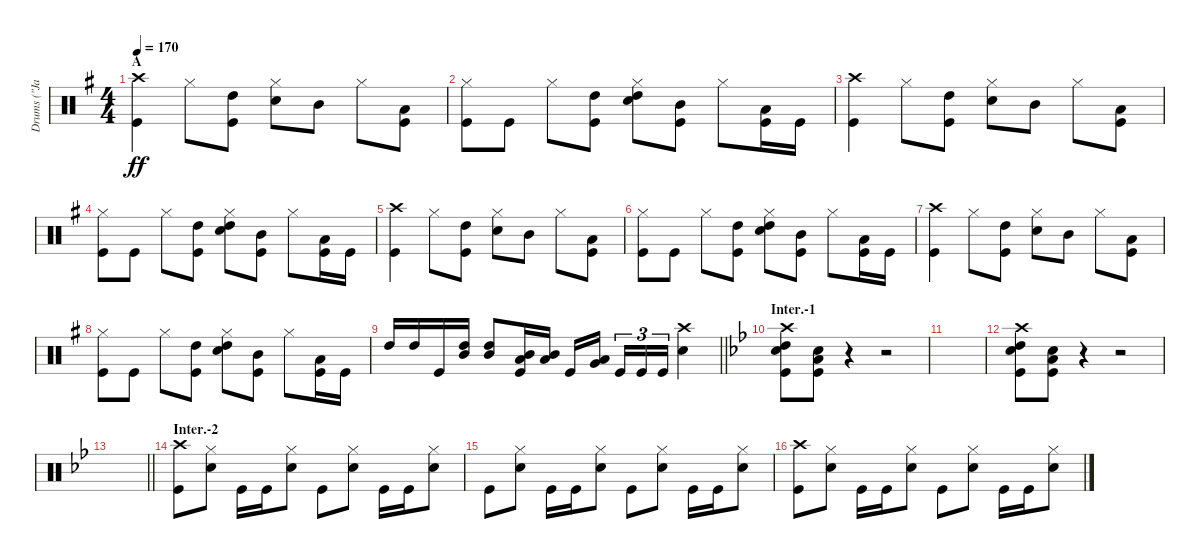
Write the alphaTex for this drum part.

\track ("Drums (\"Jane\")" "Drums (\"Ja") {instrument percussion}
\staff {score}
\articulation defaults
\ts (4 4)
\section ("" "A")
\tempo 170
\clef neutral
\ks g
("Crash high (hit)" "Kick (hit)").4{dy ff} "Hi-Hat (closed)".8 ("High Tom (hit)" "Kick (hit)").8 ("Hi-Hat (closed)" "Snare (hit) 2").8 "Mid Tom (hit)".8 "Hi-Hat (closed)".8 ("Low Tom (hit)" "Kick (hit)").8 |
("Hi-Hat (closed)" "Kick (hit)").8 "Kick (hit)".8 "Hi-Hat (closed)".8 ("High Tom (hit)" "Kick (hit)").8 ("Hi-Hat (closed)" "Snare (hit) 2" "High Tom (hit)").8 ("Mid Tom (hit)" "Kick (hit)").8 "Hi-Hat (closed)".8 ("Low Tom (hit)" "Kick (hit)").16 "Kick (hit)".16 |
("Crash high (hit)" "Kick (hit)").4 "Hi-Hat (closed)".8 ("High Tom (hit)" "Kick (hit)").8 ("Hi-Hat (closed)" "Snare (hit) 2").8 "Mid Tom (hit)".8 "Hi-Hat (closed)".8 ("Low Tom (hit)" "Kick (hit)").8 |
("Hi-Hat (closed)" "Kick (hit)").8 "Kick (hit)".8 "Hi-Hat (closed)".8 ("High Tom (hit)" "Kick (hit)").8 ("Hi-Hat (closed)" "Snare (hit) 2" "High Tom (hit)").8 ("Mid Tom (hit)" "Kick (hit)").8 "Hi-Hat (closed)".8 ("Low Tom (hit)" "Kick (hit)").16 "Kick (hit)".16 |
("Crash high (hit)" "Kick (hit)").4 "Hi-Hat (closed)".8 ("High Tom (hit)" "Kick (hit)").8 ("Hi-Hat (closed)" "Snare (hit) 2").8 "Mid Tom (hit)".8 "Hi-Hat (closed)".8 ("Low Tom (hit)" "Kick (hit)").8 |
("Hi-Hat (closed)" "Kick (hit)").8 "Kick (hit)".8 "Hi-Hat (closed)".8 ("High Tom (hit)" "Kick (hit)").8 ("Hi-Hat (closed)" "Snare (hit) 2" "High Tom (hit)").8 ("Mid Tom (hit)" "Kick (hit)").8 "Hi-Hat (closed)".8 ("Low Tom (hit)" "Kick (hit)").16 "Kick (hit)".16 |
("Crash high (hit)" "Kick (hit)").4 "Hi-Hat (closed)".8 ("High Tom (hit)" "Kick (hit)").8 ("Hi-Hat (closed)" "Snare (hit) 2").8 "Mid Tom (hit)".8 "Hi-Hat (closed)".8 ("Low Tom (hit)" "Kick (hit)").8 |
("Hi-Hat (closed)" "Kick (hit)").8 "Kick (hit)".8 "Hi-Hat (closed)".8 ("High Tom (hit)" "Kick (hit)").8 ("Hi-Hat (closed)" "Snare (hit) 2" "High Tom (hit)").8 ("Mid Tom (hit)" "Kick (hit)").8 "Hi-Hat (closed)".8 ("Low Tom (hit)" "Kick (hit)").16 "Kick (hit)".16 |
\barLineRight lightlight "High Tom (hit)".16 "High Tom (hit)".16 "Kick (hit)".16
("High Tom (hit)" "Mid Tom (hit)").16 ("High Tom (hit)" "Mid Tom (hit)").8 ("Low Tom (hit)" "Mid Tom (hit)" "Kick (hit)").16 ("Low Tom (hit)" "Mid Tom (hit)").16 "Kick (hit)".16 ("Low Tom (hit)" "Very Low Tom (hit)").16{beam splitsecondary} "Kick (hit)".16{tu (3 2)} "Kick (hit)".16{tu (3 2)} "Kick (hit)".16{tu (3 2)} ("Crash high (hit)" "Snare (hit) 2").4 |
\section ("" "Inter.-1")
\ks bb
("Crash high (hit)" "Snare (hit) 2" "High Tom (hit)" "Kick (hit)").8 ("Snare (hit) 2" "Low Tom (hit)" "Kick (hit)").8 r.4 r.2 |
|
("Crash high (hit)" "Snare (hit) 2" "High Tom (hit)" "Kick (hit)").8 ("Snare (hit) 2" "Low Tom (hit)" "Kick (hit)").8 r.4 r.2 |
\barLineRight lightlight
|
\section ("" "Inter.-2")
("Crash high (hit)" "Kick (hit)").8 ("Hi-Hat (closed)" "Snare (hit) 2").8 "Kick (hit)".16 "Kick (hit)".16 ("Hi-Hat (closed)" "Snare (hit) 2").8 "Kick (hit)".8 ("Hi-Hat (closed)" "Snare (hit) 2").8 "Kick (hit)".16 "Kick (hit)".16 ("Hi-Hat (closed)" "Snare (hit) 2").8 |
"Kick (hit)".8 ("Hi-Hat (closed)" "Snare (hit) 2").8 "Kick (hit)".16 "Kick (hit)".16 ("Hi-Hat (closed)" "Snare (hit) 2").8 "Kick (hit)".8 ("Hi-Hat (closed)" "Snare (hit) 2").8 "Kick (hit)".16 "Kick (hit)".16 ("Hi-Hat (closed)" "Snare (hit) 2").8 |
("Crash high (hit)" "Kick (hit)").8 ("Hi-Hat (closed)" "Snare (hit) 2").8 "Kick (hit)".16 "Kick (hit)".16 ("Hi-Hat (closed)" "Snare (hit) 2").8 "Kick (hit)".8 ("Hi-Hat (closed)" "Snare (hit) 2").8 "Kick (hit)".16 "Kick (hit)".16 ("Hi-Hat (closed)" "Snare (hit) 2").8
